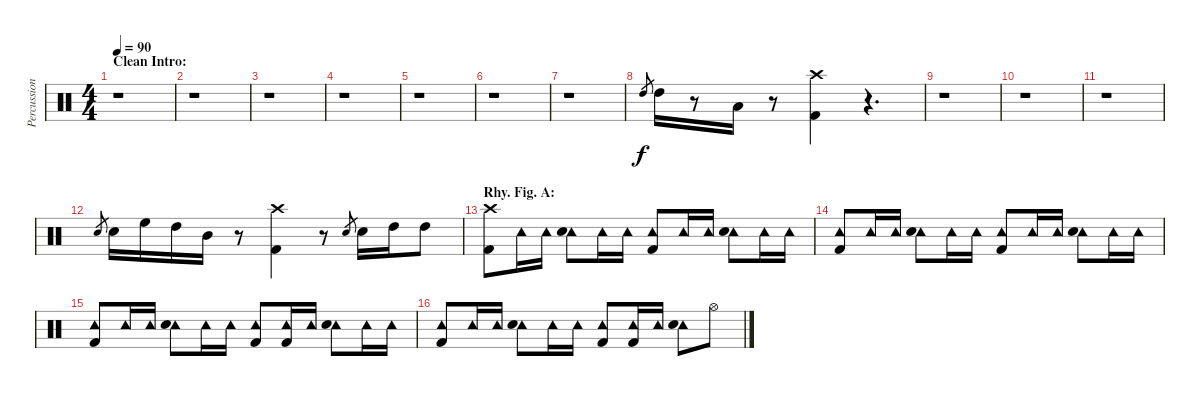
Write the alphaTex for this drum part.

\track ("Percussion" "Percussion") {instrument percussion}
\staff {score}
\articulation defaults
\ts (4 4)
\section ("" "Clean Intro:")
\tempo 90
\clef neutral
\ks c
r.1{dy f} |
r.1 |
r.1 |
r.1 |
r.1 |
r.1 |
r.1 |
"High Tom (hit)".8{gr} "High Tom (hit)".16 r.8 "Low Tom (hit)".16 r.8 ("Crash high (hit)" "Kick (hit) 2").4 r.4{d} |
r.1 |
r.1 |
r.1 |
"Electric Snare (hit)".8{gr} "Electric Snare (hit)".16 "High Floor Tom (hit)".16 "High Tom (hit)".16 "Mid Tom (hit)".16 r.8 ("Crash high (hit)" "Kick (hit) 2").4 r.8 "Electric Snare (hit)".8{gr} "Electric Snare (hit)".16 "High Tom (hit)".16 "High Tom (hit)".8 |
\section ("" "Rhy. Fig. A:")
("Crash high (hit)" "Kick (hit) 2").8 "Tambourine (hit)".16 "Tambourine (hit)".16 ("Tambourine (hit)" "Electric Snare (hit)").8 "Tambourine (hit)".16 "Tambourine (hit)".16 ("Tambourine (hit)" "Kick (hit) 2").8 "Tambourine (hit)".16 "Tambourine (hit)".16 ("Tambourine (hit)" "Electric Snare (hit)").8 "Tambourine (hit)".16 "Tambourine (hit)".16 |
("Tambourine (hit)" "Kick (hit) 2").8 "Tambourine (hit)".16 "Tambourine (hit)".16 ("Tambourine (hit)" "Electric Snare (hit)").8 "Tambourine (hit)".16 "Tambourine (hit)".16 ("Tambourine (hit)" "Kick (hit) 2").8 "Tambourine (hit)".16 "Tambourine (hit)".16 ("Tambourine (hit)" "Electric Snare (hit)").8 "Tambourine (hit)".16 "Tambourine (hit)".16 |
("Tambourine (hit)" "Kick (hit) 2").8 "Tambourine (hit)".16 "Tambourine (hit)".16 ("Tambourine (hit)" "Electric Snare (hit)").8 "Tambourine (hit)".16 "Tambourine (hit)".16 ("Tambourine (hit)" "Kick (hit) 2").8 ("Tambourine (hit)" "Kick (hit) 2").16 "Tambourine (hit)".16 ("Tambourine (hit)" "Electric Snare (hit)").8 "Tambourine (hit)".16 "Tambourine (hit)".16 |
("Tambourine (hit)" "Kick (hit) 2").8 "Tambourine (hit)".16 "Tambourine (hit)".16 ("Tambourine (hit)" "Electric Snare (hit)").8 "Tambourine (hit)".16 "Tambourine (hit)".16 ("Tambourine (hit)" "Kick (hit) 2").8 ("Tambourine (hit)" "Kick (hit) 2").16 "Tambourine (hit)".16 ("Tambourine (hit)" "Electric Snare (hit)").8 "Hi-Hat (open)".8
